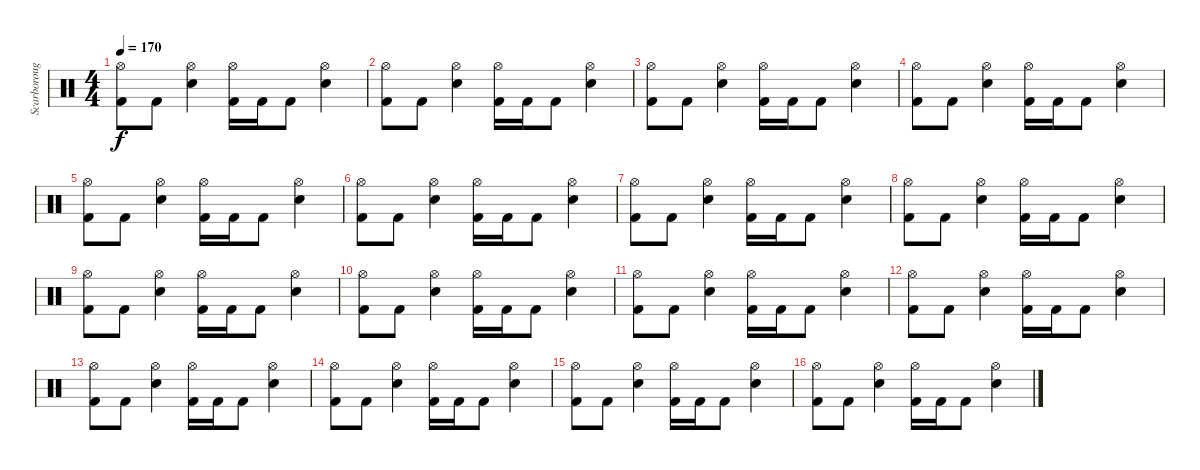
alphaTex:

\track ("Scarborough" "Scarboroug") {instrument percussion}
\staff {score}
\articulation defaults
\ts (4 4)
\tempo 170
\clef neutral
\ks c
("Hi-Hat (open)" "Kick (hit) 2").8{dy f} "Kick (hit) 2".8 ("Hi-Hat (open)" "Snare (hit) 2").4 ("Hi-Hat (open)" "Kick (hit) 2").16 "Kick (hit) 2".16 "Kick (hit) 2".8 ("Hi-Hat (open)" "Snare (hit) 2").4 |
("Hi-Hat (open)" "Kick (hit) 2").8 "Kick (hit) 2".8 ("Hi-Hat (open)" "Snare (hit) 2").4 ("Hi-Hat (open)" "Kick (hit) 2").16 "Kick (hit) 2".16 "Kick (hit) 2".8 ("Hi-Hat (open)" "Snare (hit) 2").4 |
("Hi-Hat (open)" "Kick (hit) 2").8 "Kick (hit) 2".8 ("Hi-Hat (open)" "Snare (hit) 2").4 ("Hi-Hat (open)" "Kick (hit) 2").16 "Kick (hit) 2".16 "Kick (hit) 2".8 ("Hi-Hat (open)" "Snare (hit) 2").4 |
("Hi-Hat (open)" "Kick (hit) 2").8 "Kick (hit) 2".8 ("Hi-Hat (open)" "Snare (hit) 2").4 ("Hi-Hat (open)" "Kick (hit) 2").16 "Kick (hit) 2".16 "Kick (hit) 2".8 ("Hi-Hat (open)" "Snare (hit) 2").4 |
("Hi-Hat (open)" "Kick (hit) 2").8 "Kick (hit) 2".8 ("Hi-Hat (open)" "Snare (hit) 2").4 ("Hi-Hat (open)" "Kick (hit) 2").16 "Kick (hit) 2".16 "Kick (hit) 2".8 ("Hi-Hat (open)" "Snare (hit) 2").4 |
("Hi-Hat (open)" "Kick (hit) 2").8 "Kick (hit) 2".8 ("Hi-Hat (open)" "Snare (hit) 2").4 ("Hi-Hat (open)" "Kick (hit) 2").16 "Kick (hit) 2".16 "Kick (hit) 2".8 ("Hi-Hat (open)" "Snare (hit) 2").4 |
("Hi-Hat (open)" "Kick (hit) 2").8 "Kick (hit) 2".8 ("Hi-Hat (open)" "Snare (hit) 2").4 ("Hi-Hat (open)" "Kick (hit) 2").16 "Kick (hit) 2".16 "Kick (hit) 2".8 ("Hi-Hat (open)" "Snare (hit) 2").4 |
("Hi-Hat (open)" "Kick (hit) 2").8 "Kick (hit) 2".8 ("Hi-Hat (open)" "Snare (hit) 2").4 ("Hi-Hat (open)" "Kick (hit) 2").16 "Kick (hit) 2".16 "Kick (hit) 2".8 ("Hi-Hat (open)" "Snare (hit) 2").4 |
("Hi-Hat (open)" "Kick (hit) 2").8 "Kick (hit) 2".8 ("Hi-Hat (open)" "Snare (hit) 2").4 ("Hi-Hat (open)" "Kick (hit) 2").16 "Kick (hit) 2".16 "Kick (hit) 2".8 ("Hi-Hat (open)" "Snare (hit) 2").4 |
("Hi-Hat (open)" "Kick (hit) 2").8 "Kick (hit) 2".8 ("Hi-Hat (open)" "Snare (hit) 2").4 ("Hi-Hat (open)" "Kick (hit) 2").16 "Kick (hit) 2".16 "Kick (hit) 2".8 ("Hi-Hat (open)" "Snare (hit) 2").4 |
("Hi-Hat (open)" "Kick (hit) 2").8 "Kick (hit) 2".8 ("Hi-Hat (open)" "Snare (hit) 2").4 ("Hi-Hat (open)" "Kick (hit) 2").16 "Kick (hit) 2".16 "Kick (hit) 2".8 ("Hi-Hat (open)" "Snare (hit) 2").4 |
("Hi-Hat (open)" "Kick (hit) 2").8 "Kick (hit) 2".8 ("Hi-Hat (open)" "Snare (hit) 2").4 ("Hi-Hat (open)" "Kick (hit) 2").16 "Kick (hit) 2".16 "Kick (hit) 2".8 ("Hi-Hat (open)" "Snare (hit) 2").4 |
("Hi-Hat (open)" "Kick (hit) 2").8 "Kick (hit) 2".8 ("Hi-Hat (open)" "Snare (hit) 2").4 ("Hi-Hat (open)" "Kick (hit) 2").16 "Kick (hit) 2".16 "Kick (hit) 2".8 ("Hi-Hat (open)" "Snare (hit) 2").4 |
("Hi-Hat (open)" "Kick (hit) 2").8 "Kick (hit) 2".8 ("Hi-Hat (open)" "Snare (hit) 2").4 ("Hi-Hat (open)" "Kick (hit) 2").16 "Kick (hit) 2".16 "Kick (hit) 2".8 ("Hi-Hat (open)" "Snare (hit) 2").4 |
("Hi-Hat (open)" "Kick (hit) 2").8 "Kick (hit) 2".8 ("Hi-Hat (open)" "Snare (hit) 2").4 ("Hi-Hat (open)" "Kick (hit) 2").16 "Kick (hit) 2".16 "Kick (hit) 2".8 ("Hi-Hat (open)" "Snare (hit) 2").4 |
("Hi-Hat (open)" "Kick (hit) 2").8 "Kick (hit) 2".8 ("Hi-Hat (open)" "Snare (hit) 2").4 ("Hi-Hat (open)" "Kick (hit) 2").16 "Kick (hit) 2".16 "Kick (hit) 2".8 ("Hi-Hat (open)" "Snare (hit) 2").4
